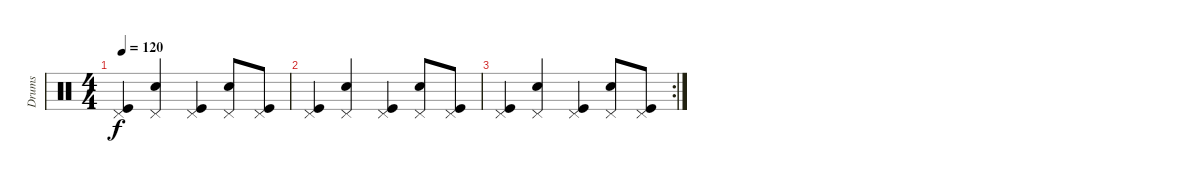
\track ("Drums" "Drums") {instrument percussion}
\staff {score}
\articulation defaults
\ts (4 4)
\tempo 120
\clef neutral
\ks c
("Pedal Hi-Hat (hit)" "Kick (hit)").4{dy f} ("Pedal Hi-Hat (hit)" "Electric Snare (hit)").4 ("Pedal Hi-Hat (hit)" "Kick (hit)").4 ("Pedal Hi-Hat (hit)" "Electric Snare (hit)").8 ("Pedal Hi-Hat (hit)" "Kick (hit)").8 |
("Pedal Hi-Hat (hit)" "Kick (hit)").4 ("Pedal Hi-Hat (hit)" "Electric Snare (hit)").4 ("Pedal Hi-Hat (hit)" "Kick (hit)").4 ("Pedal Hi-Hat (hit)" "Electric Snare (hit)").8 ("Pedal Hi-Hat (hit)" "Kick (hit)").8 |
\rc 2
("Pedal Hi-Hat (hit)" "Kick (hit)").4 ("Pedal Hi-Hat (hit)" "Electric Snare (hit)").4 ("Pedal Hi-Hat (hit)" "Kick (hit)").4 ("Pedal Hi-Hat (hit)" "Electric Snare (hit)").8 ("Pedal Hi-Hat (hit)" "Kick (hit)").8
